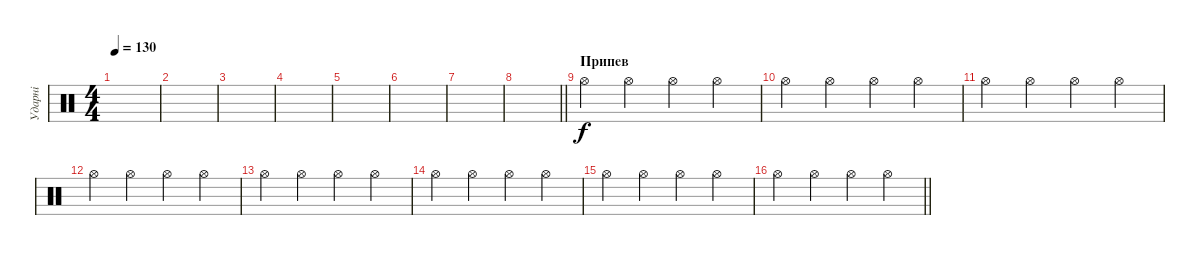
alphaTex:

\track ("Ударні" "Ударні") {instrument percussion}
\staff {score}
\articulation defaults
\ts (4 4)
\tempo 130
\clef neutral
\ks c
|
|
|
|
|
|
|
\barLineRight lightlight
|
\section ("" "Припев")
"Hi-Hat (open)".4 "Hi-Hat (open)".4 "Hi-Hat (open)".4 "Hi-Hat (open)".4 |
"Hi-Hat (open)".4 "Hi-Hat (open)".4 "Hi-Hat (open)".4 "Hi-Hat (open)".4 |
"Hi-Hat (open)".4 "Hi-Hat (open)".4 "Hi-Hat (open)".4 "Hi-Hat (open)".4 |
"Hi-Hat (open)".4 "Hi-Hat (open)".4 "Hi-Hat (open)".4 "Hi-Hat (open)".4 |
"Hi-Hat (open)".4 "Hi-Hat (open)".4 "Hi-Hat (open)".4 "Hi-Hat (open)".4 |
"Hi-Hat (open)".4 "Hi-Hat (open)".4 "Hi-Hat (open)".4 "Hi-Hat (open)".4 |
"Hi-Hat (open)".4 "Hi-Hat (open)".4 "Hi-Hat (open)".4 "Hi-Hat (open)".4 |
\barLineRight lightlight "Hi-Hat (open)".4 "Hi-Hat (open)".4 "Hi-Hat (open)".4 "Hi-Hat (open)".4
